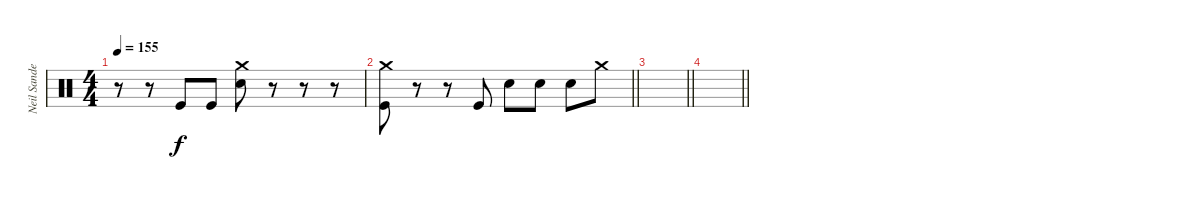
\track ("Neil Sanderson" "Neil Sande") {instrument percussion}
\staff {score}
\articulation defaults
\ts (4 4)
\tempo 155
\clef neutral
\ks c
r.8{dy f} r.8 "Kick (hit)".8 "Kick (hit)".8 ("Electric Snare (hit)" "Crash medium (hit)").8 r.8 r.8 r.8 |
\barLineRight lightlight
("Kick (hit)" "Crash medium (hit)").8 r.8 r.8 "Kick (hit)".8 "Electric Snare (hit)".8 "Electric Snare (hit)".8 "Electric Snare (hit)".8 "Crash medium (hit)".8 |
\barLineRight lightlight
|
\barLineRight lightlight
